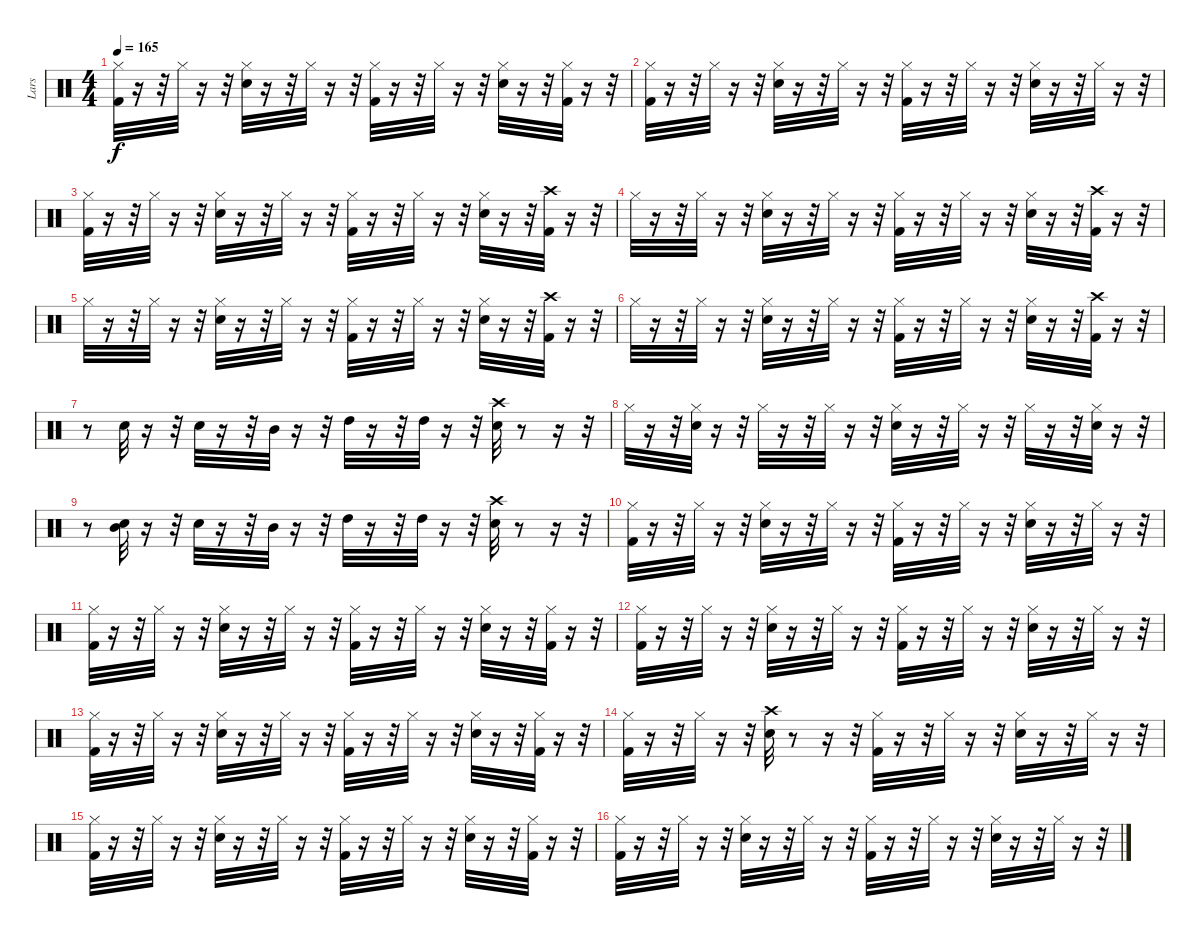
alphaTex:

\track ("Lars" "Lars") {instrument percussion}
\staff {score}
\articulation defaults
\ts (4 4)
\tempo 165
\clef neutral
\ks c
("Hi-Hat (closed)" "Kick (hit) 2").32{dy f} r.16 r.32 "Hi-Hat (closed)".32 r.16 r.32 ("Snare (hit) 2" "Hi-Hat (closed)").32 r.16 r.32 "Hi-Hat (closed)".32 r.16 r.32 ("Hi-Hat (closed)" "Kick (hit) 2").32 r.16 r.32 "Hi-Hat (closed)".32 r.16 r.32 ("Snare (hit) 2" "Hi-Hat (closed)").32 r.16 r.32 ("Kick (hit) 2" "Hi-Hat (closed)").32 r.16 r.32 |
("Hi-Hat (closed)" "Kick (hit) 2").32 r.16 r.32 "Hi-Hat (closed)".32 r.16 r.32 ("Snare (hit) 2" "Hi-Hat (closed)").32 r.16 r.32 "Hi-Hat (closed)".32 r.16 r.32 ("Hi-Hat (closed)" "Kick (hit) 2").32 r.16 r.32 "Hi-Hat (closed)".32 r.16 r.32 ("Snare (hit) 2" "Hi-Hat (closed)").32 r.16 r.32 "Hi-Hat (closed)".32 r.16 r.32 |
("Hi-Hat (closed)" "Kick (hit) 2").32 r.16 r.32 "Hi-Hat (closed)".32 r.16 r.32 ("Snare (hit) 2" "Hi-Hat (closed)").32 r.16 r.32 "Hi-Hat (closed)".32 r.16 r.32 ("Hi-Hat (closed)" "Kick (hit) 2").32 r.16 r.32 "Hi-Hat (closed)".32 r.16 r.32 ("Snare (hit) 2" "Hi-Hat (closed)").32 r.16 r.32 ("Crash high (hit)" "Kick (hit) 2").32 r.16 r.32 |
"Hi-Hat (closed)".32 r.16 r.32 "Hi-Hat (closed)".32 r.16 r.32 ("Snare (hit) 2" "Hi-Hat (closed)").32 r.16 r.32 "Hi-Hat (closed)".32 r.16 r.32 ("Hi-Hat (closed)" "Kick (hit) 2").32 r.16 r.32 "Hi-Hat (closed)".32 r.16 r.32 ("Snare (hit) 2" "Hi-Hat (closed)").32 r.16 r.32 ("Crash high (hit)" "Kick (hit) 2").32 r.16 r.32 |
"Hi-Hat (closed)".32 r.16 r.32 "Hi-Hat (closed)".32 r.16 r.32 ("Snare (hit) 2" "Hi-Hat (closed)").32 r.16 r.32 "Hi-Hat (closed)".32 r.16 r.32 ("Hi-Hat (closed)" "Kick (hit) 2").32 r.16 r.32 "Hi-Hat (closed)".32 r.16 r.32 ("Snare (hit) 2" "Hi-Hat (closed)").32 r.16 r.32 ("Crash high (hit)" "Kick (hit) 2").32 r.16 r.32 |
"Hi-Hat (closed)".32 r.16 r.32 "Hi-Hat (closed)".32 r.16 r.32 ("Snare (hit) 2" "Hi-Hat (closed)").32 r.16 r.32 "Hi-Hat (closed)".32 r.16 r.32 ("Hi-Hat (closed)" "Kick (hit) 2").32 r.16 r.32 "Hi-Hat (closed)".32 r.16 r.32 ("Snare (hit) 2" "Hi-Hat (closed)").32 r.16 r.32 ("Crash high (hit)" "Kick (hit) 2").32 r.16 r.32 |
r.8 "Snare (hit) 2".32 r.16 r.32 "Snare (hit) 2".32 r.16 r.32 "Mid Tom (hit)".32 r.16 r.32 "High Tom (hit)".32 r.16 r.32 "High Tom (hit)".32 r.16 r.32 ("Crash high (hit)" "Snare (hit) 2").32 r.8 r.16 r.32 |
"Hi-Hat (closed)".32 r.16 r.32 ("Snare (hit) 2" "Hi-Hat (closed)").32 r.16 r.32 "Hi-Hat (closed)".32 r.16 r.32 "Hi-Hat (closed)".32 r.16 r.32 ("Snare (hit) 2" "Hi-Hat (closed)").32 r.16 r.32 "Hi-Hat (closed)".32 r.16 r.32 "Hi-Hat (closed)".32 r.16 r.32 ("Snare (hit) 2" "Hi-Hat (closed)").32 r.16 r.32 |
r.8 ("Mid Tom (hit)" "Snare (hit) 2").32 r.16 r.32 "Snare (hit) 2".32 r.16 r.32 "Mid Tom (hit)".32 r.16 r.32 "High Tom (hit)".32 r.16 r.32 "High Tom (hit)".32 r.16 r.32 ("Crash high (hit)" "Snare (hit) 2").32 r.8 r.16 r.32 |
("Kick (hit) 2" "Hi-Hat (closed)").32 r.16 r.32 "Hi-Hat (closed)".32 r.16 r.32 ("Snare (hit) 2" "Hi-Hat (closed)").32 r.16 r.32 "Hi-Hat (closed)".32 r.16 r.32 ("Hi-Hat (closed)" "Kick (hit) 2").32 r.16 r.32 "Hi-Hat (closed)".32 r.16 r.32 ("Hi-Hat (closed)" "Snare (hit) 2").32 r.16 r.32 "Hi-Hat (closed)".32 r.16 r.32 |
("Kick (hit) 2" "Hi-Hat (closed)").32 r.16 r.32 "Hi-Hat (closed)".32 r.16 r.32 ("Snare (hit) 2" "Hi-Hat (closed)").32 r.16 r.32 "Hi-Hat (closed)".32 r.16 r.32 ("Hi-Hat (closed)" "Kick (hit) 2").32 r.16 r.32 "Hi-Hat (closed)".32 r.16 r.32 ("Snare (hit) 2" "Hi-Hat (closed)").32 r.16 r.32 ("Kick (hit) 2" "Hi-Hat (closed)").32 r.16 r.32 |
("Kick (hit) 2" "Hi-Hat (closed)").32 r.16 r.32 "Hi-Hat (closed)".32 r.16 r.32 ("Snare (hit) 2" "Hi-Hat (closed)").32 r.16 r.32 "Hi-Hat (closed)".32 r.16 r.32 ("Kick (hit) 2" "Hi-Hat (closed)").32 r.16 r.32 "Hi-Hat (closed)".32 r.16 r.32 ("Snare (hit) 2" "Hi-Hat (closed)").32 r.16 r.32 "Hi-Hat (closed)".32 r.16 r.32 |
("Kick (hit) 2" "Hi-Hat (closed)").32 r.16 r.32 "Hi-Hat (closed)".32 r.16 r.32 ("Snare (hit) 2" "Hi-Hat (closed)").32 r.16 r.32 "Hi-Hat (closed)".32 r.16 r.32 ("Hi-Hat (closed)" "Kick (hit) 2").32 r.16 r.32 "Hi-Hat (closed)".32 r.16 r.32 ("Snare (hit) 2" "Hi-Hat (closed)").32 r.16 r.32 ("Kick (hit) 2" "Hi-Hat (closed)").32 r.16 r.32 |
("Kick (hit) 2" "Hi-Hat (closed)").32 r.16 r.32 "Hi-Hat (closed)".32 r.16 r.32 ("Crash high (hit)" "Snare (hit) 2").32 r.8 r.16 r.32 ("Hi-Hat (closed)" "Kick (hit) 2").32 r.16 r.32 "Hi-Hat (closed)".32 r.16 r.32 ("Snare (hit) 2" "Hi-Hat (closed)").32 r.16 r.32 "Hi-Hat (closed)".32 r.16 r.32 |
("Hi-Hat (closed)" "Kick (hit) 2").32 r.16 r.32 "Hi-Hat (closed)".32 r.16 r.32 ("Snare (hit) 2" "Hi-Hat (closed)").32 r.16 r.32 "Hi-Hat (closed)".32 r.16 r.32 ("Hi-Hat (closed)" "Kick (hit) 2").32 r.16 r.32 "Hi-Hat (closed)".32 r.16 r.32 ("Snare (hit) 2" "Hi-Hat (closed)").32 r.16 r.32 ("Hi-Hat (closed)" "Kick (hit) 2").32 r.16 r.32 |
("Kick (hit) 2" "Hi-Hat (closed)").32 r.16 r.32 "Hi-Hat (closed)".32 r.16 r.32 ("Snare (hit) 2" "Hi-Hat (closed)").32 r.16 r.32 "Hi-Hat (closed)".32 r.16 r.32 ("Hi-Hat (closed)" "Kick (hit) 2").32 r.16 r.32 "Hi-Hat (closed)".32 r.16 r.32 ("Hi-Hat (closed)" "Snare (hit) 2").32 r.16 r.32 "Hi-Hat (closed)".32 r.16 r.32
